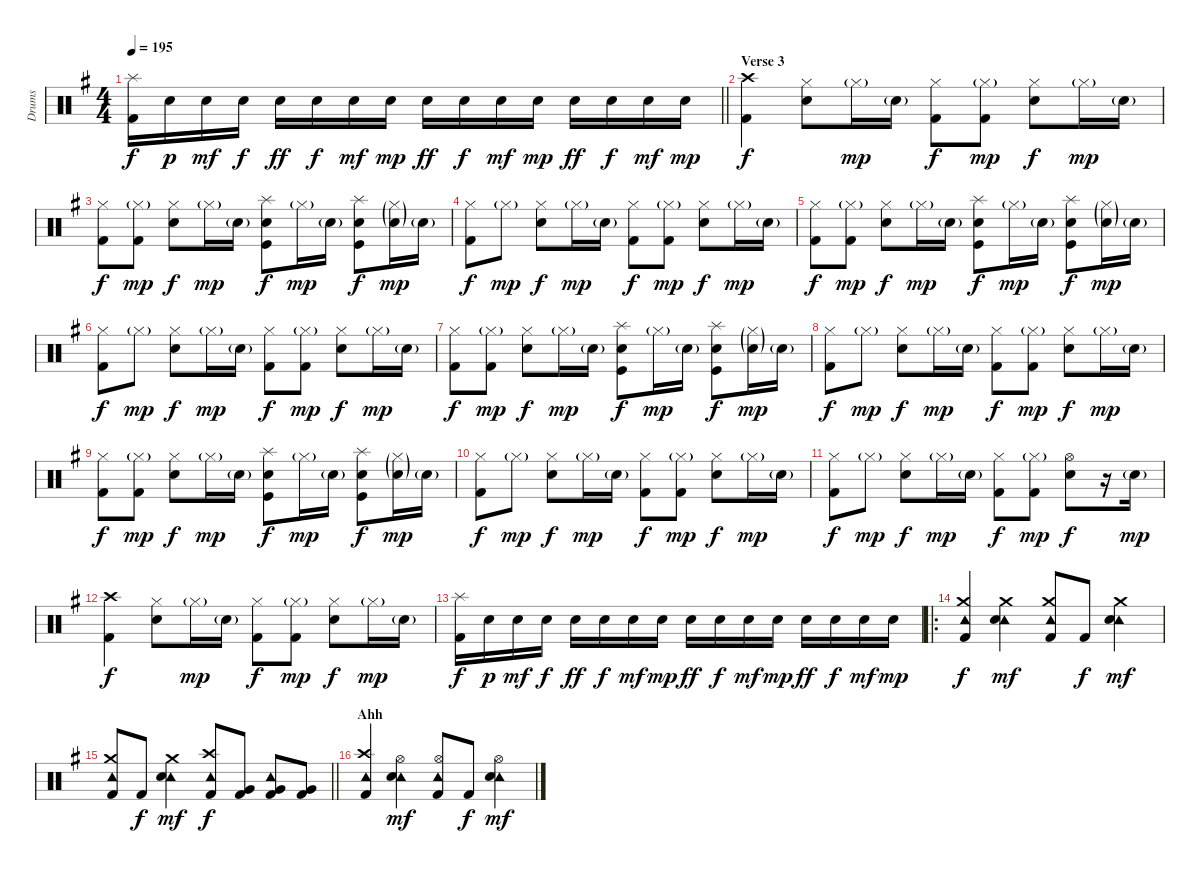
\track ("Drums" "Drums") {instrument percussion}
\staff {score}
\articulation defaults
\ts (4 4)
\tempo 195
\clef neutral
\barLineRight lightlight
\ks g
("Splash (hit)" "Kick (hit) 2").16{dy f} "Electric Snare (hit)".16{dy p} "Electric Snare (hit)".16{dy mf} "Electric Snare (hit)".16{dy f} "Electric Snare (hit)".16{dy ff} "Electric Snare (hit)".16{dy f} "Electric Snare (hit)".16{dy mf} "Electric Snare (hit)".16{dy mp} "Electric Snare (hit)".16{dy ff} "Electric Snare (hit)".16{dy f} "Electric Snare (hit)".16{dy mf} "Electric Snare (hit)".16{dy mp} "Electric Snare (hit)".16{dy ff} "Electric Snare (hit)".16{dy f} "Electric Snare (hit)".16{dy mf} "Electric Snare (hit)".16{dy mp} |
\section ("" "Verse 3")
("Crash high (hit)" "Kick (hit) 2").4{dy f} ("Hi-Hat (closed)" "Electric Snare (hit)").8 "Hi-Hat (closed)"{g}.16{dy mp} "Electric Snare (hit)"{g}.16 ("Hi-Hat (closed)" "Kick (hit) 2").8{dy f} ("Hi-Hat (closed)"{g} "Kick (hit) 2").8{dy mp} ("Hi-Hat (closed)" "Electric Snare (hit)").8{dy f} "Hi-Hat (closed)"{g}.16{dy mp} "Electric Snare (hit)"{g}.16 |
("Hi-Hat (closed)" "Kick (hit) 2").8{dy f} ("Hi-Hat (closed)"{g} "Kick (hit) 2").8{dy mp} ("Hi-Hat (closed)" "Electric Snare (hit)").8{dy f} "Hi-Hat (closed)"{g}.16{dy mp} "Electric Snare (hit)"{g}.16 ("Splash (hit)" "Electric Snare (hit)" "Kick (hit)").8{dy f} "Hi-Hat (closed)"{g}.16{dy mp} "Electric Snare (hit)"{g}.16 ("Splash (hit)" "Electric Snare (hit)" "Kick (hit)").8{dy f} ("Hi-Hat (closed)"{g} "Electric Snare (hit)"{g}).16{dy mp} "Electric Snare (hit)"{g}.16 |
("Hi-Hat (closed)" "Kick (hit) 2").8{dy f} "Hi-Hat (closed)"{g}.8{dy mp} ("Hi-Hat (closed)" "Electric Snare (hit)").8{dy f} "Hi-Hat (closed)"{g}.16{dy mp} "Electric Snare (hit)"{g}.16 ("Hi-Hat (closed)" "Kick (hit) 2").8{dy f} ("Hi-Hat (closed)"{g} "Kick (hit) 2").8{dy mp} ("Hi-Hat (closed)" "Electric Snare (hit)").8{dy f} "Hi-Hat (closed)"{g}.16{dy mp} "Electric Snare (hit)"{g}.16 |
("Hi-Hat (closed)" "Kick (hit) 2").8{dy f} ("Hi-Hat (closed)"{g} "Kick (hit) 2").8{dy mp} ("Hi-Hat (closed)" "Electric Snare (hit)").8{dy f} "Hi-Hat (closed)"{g}.16{dy mp} "Electric Snare (hit)"{g}.16 ("Splash (hit)" "Electric Snare (hit)" "Kick (hit)").8{dy f} "Hi-Hat (closed)"{g}.16{dy mp} "Electric Snare (hit)"{g}.16 ("Splash (hit)" "Electric Snare (hit)" "Kick (hit)").8{dy f} ("Hi-Hat (closed)"{g} "Electric Snare (hit)"{g}).16{dy mp} "Electric Snare (hit)"{g}.16 |
("Hi-Hat (closed)" "Kick (hit) 2").8{dy f} "Hi-Hat (closed)"{g}.8{dy mp} ("Hi-Hat (closed)" "Electric Snare (hit)").8{dy f} "Hi-Hat (closed)"{g}.16{dy mp} "Electric Snare (hit)"{g}.16 ("Hi-Hat (closed)" "Kick (hit) 2").8{dy f} ("Hi-Hat (closed)"{g} "Kick (hit) 2").8{dy mp} ("Hi-Hat (closed)" "Electric Snare (hit)").8{dy f} "Hi-Hat (closed)"{g}.16{dy mp} "Electric Snare (hit)"{g}.16 |
("Hi-Hat (closed)" "Kick (hit) 2").8{dy f} ("Hi-Hat (closed)"{g} "Kick (hit) 2").8{dy mp} ("Hi-Hat (closed)" "Electric Snare (hit)").8{dy f} "Hi-Hat (closed)"{g}.16{dy mp} "Electric Snare (hit)"{g}.16 ("Splash (hit)" "Electric Snare (hit)" "Kick (hit)").8{dy f} "Hi-Hat (closed)"{g}.16{dy mp} "Electric Snare (hit)"{g}.16 ("Splash (hit)" "Electric Snare (hit)" "Kick (hit)").8{dy f} ("Hi-Hat (closed)"{g} "Electric Snare (hit)"{g}).16{dy mp} "Electric Snare (hit)"{g}.16 |
("Hi-Hat (closed)" "Kick (hit) 2").8{dy f} "Hi-Hat (closed)"{g}.8{dy mp} ("Hi-Hat (closed)" "Electric Snare (hit)").8{dy f} "Hi-Hat (closed)"{g}.16{dy mp} "Electric Snare (hit)"{g}.16 ("Hi-Hat (closed)" "Kick (hit) 2").8{dy f} ("Hi-Hat (closed)"{g} "Kick (hit) 2").8{dy mp} ("Hi-Hat (closed)" "Electric Snare (hit)").8{dy f} "Hi-Hat (closed)"{g}.16{dy mp} "Electric Snare (hit)"{g}.16 |
("Hi-Hat (closed)" "Kick (hit) 2").8{dy f} ("Hi-Hat (closed)"{g} "Kick (hit) 2").8{dy mp} ("Hi-Hat (closed)" "Electric Snare (hit)").8{dy f} "Hi-Hat (closed)"{g}.16{dy mp} "Electric Snare (hit)"{g}.16 ("Splash (hit)" "Electric Snare (hit)" "Kick (hit)").8{dy f} "Hi-Hat (closed)"{g}.16{dy mp} "Electric Snare (hit)"{g}.16 ("Splash (hit)" "Electric Snare (hit)" "Kick (hit)").8{dy f} ("Hi-Hat (closed)"{g} "Electric Snare (hit)"{g}).16{dy mp} "Electric Snare (hit)"{g}.16 |
("Hi-Hat (closed)" "Kick (hit) 2").8{dy f} "Hi-Hat (closed)"{g}.8{dy mp} ("Hi-Hat (closed)" "Electric Snare (hit)").8{dy f} "Hi-Hat (closed)"{g}.16{dy mp} "Electric Snare (hit)"{g}.16 ("Hi-Hat (closed)" "Kick (hit) 2").8{dy f} ("Hi-Hat (closed)"{g} "Kick (hit) 2").8{dy mp} ("Hi-Hat (closed)" "Electric Snare (hit)").8{dy f} "Hi-Hat (closed)"{g}.16{dy mp} "Electric Snare (hit)"{g}.16 |
("Hi-Hat (closed)" "Kick (hit) 2").8{dy f} "Hi-Hat (closed)"{g}.8{dy mp} ("Hi-Hat (closed)" "Electric Snare (hit)").8{dy f} "Hi-Hat (closed)"{g}.16{dy mp} "Electric Snare (hit)"{g}.16 ("Hi-Hat (closed)" "Kick (hit) 2").8{dy f} ("Hi-Hat (closed)"{g} "Kick (hit) 2").8{dy mp} ("Hi-Hat (open)" "Electric Snare (hit)").8{dy f} r.16 "Electric Snare (hit)"{g}.16{dy mp} |
("Crash high (hit)" "Kick (hit) 2").4{dy f} ("Hi-Hat (closed)" "Electric Snare (hit)").8 "Hi-Hat (closed)"{g}.16{dy mp} "Electric Snare (hit)"{g}.16 ("Hi-Hat (closed)" "Kick (hit) 2").8{dy f} ("Hi-Hat (closed)"{g} "Kick (hit) 2").8{dy mp} ("Hi-Hat (closed)" "Electric Snare (hit)").8{dy f} "Hi-Hat (closed)"{g}.16{dy mp} "Electric Snare (hit)"{g}.16 |
("Splash (hit)" "Kick (hit) 2").16{dy f} "Electric Snare (hit)".16{dy p} "Electric Snare (hit)".16{dy mf} "Electric Snare (hit)".16{dy f} "Electric Snare (hit)".16{dy ff} "Electric Snare (hit)".16{dy f} "Electric Snare (hit)".16{dy mf} "Electric Snare (hit)".16{dy mp} "Electric Snare (hit)".16{dy ff} "Electric Snare (hit)".16{dy f} "Electric Snare (hit)".16{dy mf} "Electric Snare (hit)".16{dy mp} "Electric Snare (hit)".16{dy ff} "Electric Snare (hit)".16{dy f} "Electric Snare (hit)".16{dy mf} "Electric Snare (hit)".16{dy mp} |
\ro
("Crash medium (hit)" "Tambourine (hit)" "Kick (hit) 2").4{dy f} ("Crash medium (hit)" "Tambourine (hit)" "Electric Snare (hit)").4{dy mf} ("Crash medium (hit)" "Tambourine (hit)" "Kick (hit) 2").8 "Kick (hit) 2".8{dy f} ("Crash medium (hit)" "Tambourine (hit)" "Electric Snare (hit)").4{dy mf} |
\barLineRight lightlight
("Crash medium (hit)" "Tambourine (hit)" "Kick (hit) 2").8 "Kick (hit) 2".8{dy f} ("Crash medium (hit)" "Tambourine (hit)" "Electric Snare (hit)").4{dy mf} ("Crash high (hit)" "Tambourine (hit)" "Kick (hit) 2").8{dy f} ("Very Low Tom (hit)" "Kick (hit) 2").8 ("Tambourine (hit)" "Very Low Tom (hit)" "Kick (hit) 2").8 ("Very Low Tom (hit)" "Kick (hit) 2").8 |
\section ("" "Ahh")
("Crash high (hit)" "Tambourine (hit)" "Kick (hit) 2").4 ("Hi-Hat (open)" "Tambourine (hit)" "Electric Snare (hit)").4{dy mf} ("Hi-Hat (open)" "Tambourine (hit)" "Kick (hit) 2").8 "Kick (hit) 2".8{dy f} ("Hi-Hat (open)" "Tambourine (hit)" "Electric Snare (hit)").4{dy mf}
